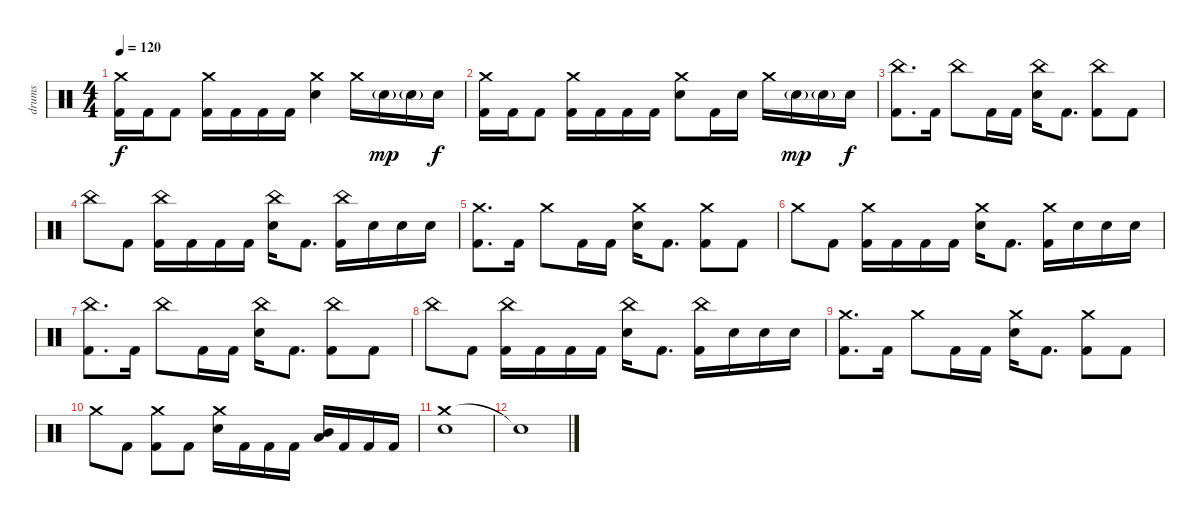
\track ("drums" "drums") {instrument percussion}
\staff {score}
\articulation defaults
\ts (4 4)
\tempo 120
\clef neutral
\ks c
("Crash medium (hit)" "Kick (hit) 2").16{dy f} "Kick (hit) 2".16 "Kick (hit) 2".8 ("Crash medium (hit)" "Kick (hit) 2").16 "Kick (hit) 2".16 "Kick (hit) 2".16 "Kick (hit) 2".16 ("Crash medium (hit)" "Electric Snare (hit)").4 "Crash medium (hit)".16 "Electric Snare (hit)"{g}.16{dy mp} "Electric Snare (hit)"{g}.16 "Electric Snare (hit)".16{dy f} |
("Crash medium (hit)" "Kick (hit) 2").16 "Kick (hit) 2".16 "Kick (hit) 2".8 ("Crash medium (hit)" "Kick (hit) 2").16 "Kick (hit) 2".16 "Kick (hit) 2".16 "Kick (hit) 2".16 ("Crash medium (hit)" "Electric Snare (hit)").8 "Kick (hit) 2".16 "Electric Snare (hit)".16 "Crash medium (hit)".16 "Electric Snare (hit)"{g}.16{dy mp} "Electric Snare (hit)"{g}.16 "Electric Snare (hit)".16{dy f} |
("China (hit)" "Kick (hit) 2").8{d} "Kick (hit) 2".16 "China (hit)".8 "Kick (hit) 2".16 "Kick (hit) 2".16 ("China (hit)" "Electric Snare (hit)").16 "Kick (hit) 2".8{d} ("China (hit)" "Kick (hit) 2").8 "Kick (hit) 2".8 |
"China (hit)".8 "Kick (hit) 2".8 ("China (hit)" "Kick (hit) 2").16 "Kick (hit) 2".16 "Kick (hit) 2".16 "Kick (hit) 2".16 ("China (hit)" "Electric Snare (hit)").16 "Kick (hit) 2".8{d} ("China (hit)" "Kick (hit) 2").16 "Electric Snare (hit)".16 "Electric Snare (hit)".16 "Electric Snare (hit)".16 |
("Crash medium (hit)" "Kick (hit) 2").8{d} "Kick (hit) 2".16 "Crash medium (hit)".8 "Kick (hit) 2".16 "Kick (hit) 2".16 ("Crash medium (hit)" "Electric Snare (hit)").16 "Kick (hit) 2".8{d} ("Crash medium (hit)" "Kick (hit) 2").8 "Kick (hit) 2".8 |
"Crash medium (hit)".8 "Kick (hit) 2".8 ("Crash medium (hit)" "Kick (hit) 2").16 "Kick (hit) 2".16 "Kick (hit) 2".16 "Kick (hit) 2".16 ("Crash medium (hit)" "Electric Snare (hit)").16 "Kick (hit) 2".8{d} ("Crash medium (hit)" "Kick (hit) 2").16 "Electric Snare (hit)".16 "Electric Snare (hit)".16 "Electric Snare (hit)".16 |
("China (hit)" "Kick (hit) 2").8{d} "Kick (hit) 2".16 "China (hit)".8 "Kick (hit) 2".16 "Kick (hit) 2".16 ("China (hit)" "Electric Snare (hit)").16 "Kick (hit) 2".8{d} ("China (hit)" "Kick (hit) 2").8 "Kick (hit) 2".8 |
"China (hit)".8 "Kick (hit) 2".8 ("China (hit)" "Kick (hit) 2").16 "Kick (hit) 2".16 "Kick (hit) 2".16 "Kick (hit) 2".16 ("China (hit)" "Electric Snare (hit)").16 "Kick (hit) 2".8{d} ("China (hit)" "Kick (hit) 2").16 "Electric Snare (hit)".16 "Electric Snare (hit)".16 "Electric Snare (hit)".16 |
("Crash medium (hit)" "Kick (hit) 2").8{d} "Kick (hit) 2".16 "Crash medium (hit)".8 "Kick (hit) 2".16 "Kick (hit) 2".16 ("Crash medium (hit)" "Electric Snare (hit)").16 "Kick (hit) 2".8{d} ("Crash medium (hit)" "Kick (hit) 2").8 "Kick (hit) 2".8 |
"Crash medium (hit)".8 "Kick (hit) 2".8 ("Crash medium (hit)" "Kick (hit) 2").8 "Kick (hit) 2".8 ("Crash medium (hit)" "Electric Snare (hit)").16 "Kick (hit) 2".16 "Kick (hit) 2".16 "Kick (hit) 2".16 ("Mid Tom (hit)" "Low Tom (hit)").16 "Kick (hit) 2".16 "Kick (hit) 2".16 "Kick (hit) 2".16 |
("Crash medium (hit)" "Electric Snare (hit)").1 |
"Snare (hit)"{t}.1
